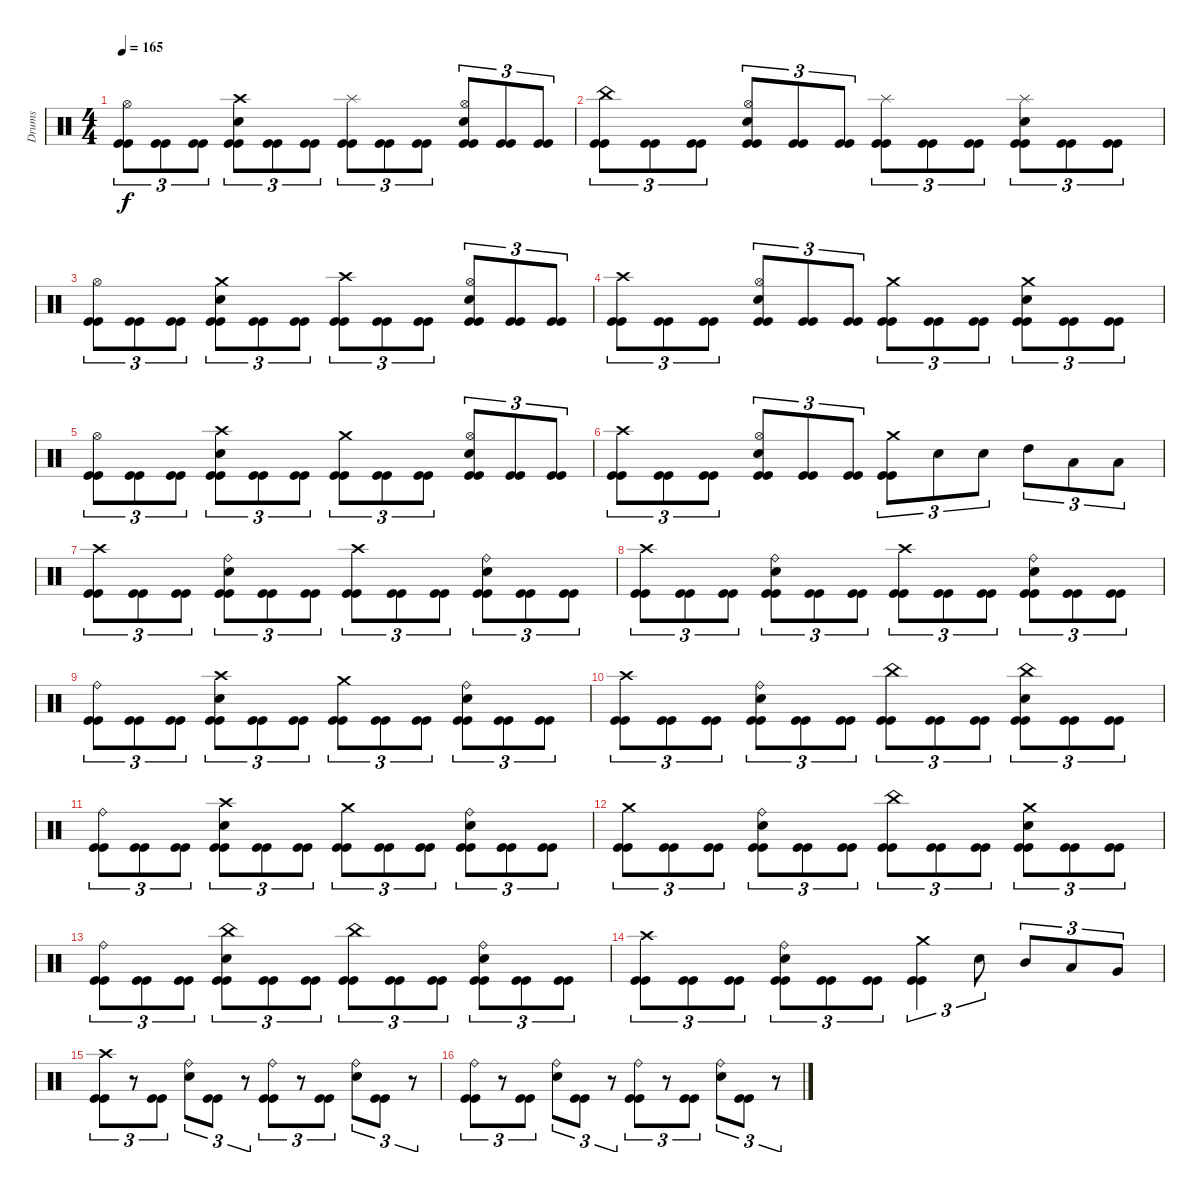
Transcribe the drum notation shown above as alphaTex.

\track ("Drums" "Drums") {instrument percussion}
\staff {score}
\articulation defaults
\ts (4 4)
\tempo 165
\clef neutral
\ks c
("Kick (hit)" "Kick (hit)" "Hi-Hat (open)").8{tu (3 2) dy f} ("Kick (hit)" "Kick (hit)").8{tu (3 2)} ("Kick (hit)" "Kick (hit)").8{tu (3 2)} ("Kick (hit)" "Kick (hit)" "Snare (hit) 2" "Crash high (hit)").8{tu (3 2)} ("Kick (hit)" "Kick (hit)").8{tu (3 2)} ("Kick (hit)" "Kick (hit)").8{tu (3 2)} ("Kick (hit)" "Kick (hit)" "Splash (hit)").8{tu (3 2)} ("Kick (hit)" "Kick (hit)").8{tu (3 2)} ("Kick (hit)" "Kick (hit)").8{tu (3 2)} ("Kick (hit)" "Kick (hit)" "Snare (hit) 2" "Hi-Hat (open)").8{tu (3 2)} ("Kick (hit)" "Kick (hit)").8{tu (3 2)} ("Kick (hit)" "Kick (hit)").8{tu (3 2)} |
("Kick (hit)" "Kick (hit)" "China (hit)").8{tu (3 2)} ("Kick (hit)" "Kick (hit)").8{tu (3 2)} ("Kick (hit)" "Kick (hit)").8{tu (3 2)} ("Kick (hit)" "Kick (hit)" "Snare (hit) 2" "Hi-Hat (open)").8{tu (3 2)} ("Kick (hit)" "Kick (hit)").8{tu (3 2)} ("Kick (hit)" "Kick (hit)").8{tu (3 2)} ("Kick (hit)" "Kick (hit)" "Splash (hit)").8{tu (3 2)} ("Kick (hit)" "Kick (hit)").8{tu (3 2)} ("Kick (hit)" "Kick (hit)").8{tu (3 2)} ("Kick (hit)" "Kick (hit)" "Snare (hit) 2" "Splash (hit)").8{tu (3 2)} ("Kick (hit)" "Kick (hit)").8{tu (3 2)} ("Kick (hit)" "Kick (hit)").8{tu (3 2)} |
("Kick (hit)" "Kick (hit)" "Hi-Hat (open)").8{tu (3 2)} ("Kick (hit)" "Kick (hit)").8{tu (3 2)} ("Kick (hit)" "Kick (hit)").8{tu (3 2)} ("Kick (hit)" "Kick (hit)" "Snare (hit) 2" "Crash medium (hit)").8{tu (3 2)} ("Kick (hit)" "Kick (hit)").8{tu (3 2)} ("Kick (hit)" "Kick (hit)").8{tu (3 2)} ("Kick (hit)" "Kick (hit)" "Crash high (hit)").8{tu (3 2)} ("Kick (hit)" "Kick (hit)").8{tu (3 2)} ("Kick (hit)" "Kick (hit)").8{tu (3 2)} ("Kick (hit)" "Kick (hit)" "Snare (hit) 2" "Hi-Hat (open)").8{tu (3 2)} ("Kick (hit)" "Kick (hit)").8{tu (3 2)} ("Kick (hit)" "Kick (hit)").8{tu (3 2)} |
("Kick (hit)" "Kick (hit)" "Crash high (hit)").8{tu (3 2)} ("Kick (hit)" "Kick (hit)").8{tu (3 2)} ("Kick (hit)" "Kick (hit)").8{tu (3 2)} ("Kick (hit)" "Kick (hit)" "Snare (hit) 2" "Hi-Hat (open)").8{tu (3 2)} ("Kick (hit)" "Kick (hit)").8{tu (3 2)} ("Kick (hit)" "Kick (hit)").8{tu (3 2)} ("Kick (hit)" "Kick (hit)" "Crash medium (hit)").8{tu (3 2)} ("Kick (hit)" "Kick (hit)").8{tu (3 2)} ("Kick (hit)" "Kick (hit)").8{tu (3 2)} ("Kick (hit)" "Kick (hit)" "Snare (hit) 2" "Crash medium (hit)").8{tu (3 2)} ("Kick (hit)" "Kick (hit)").8{tu (3 2)} ("Kick (hit)" "Kick (hit)").8{tu (3 2)} |
("Kick (hit)" "Kick (hit)" "Hi-Hat (open)").8{tu (3 2)} ("Kick (hit)" "Kick (hit)").8{tu (3 2)} ("Kick (hit)" "Kick (hit)").8{tu (3 2)} ("Kick (hit)" "Kick (hit)" "Snare (hit) 2" "Crash high (hit)").8{tu (3 2)} ("Kick (hit)" "Kick (hit)").8{tu (3 2)} ("Kick (hit)" "Kick (hit)").8{tu (3 2)} ("Kick (hit)" "Kick (hit)" "Crash medium (hit)").8{tu (3 2)} ("Kick (hit)" "Kick (hit)").8{tu (3 2)} ("Kick (hit)" "Kick (hit)").8{tu (3 2)} ("Kick (hit)" "Kick (hit)" "Snare (hit) 2" "Hi-Hat (open)").8{tu (3 2)} ("Kick (hit)" "Kick (hit)").8{tu (3 2)} ("Kick (hit)" "Kick (hit)").8{tu (3 2)} |
("Kick (hit)" "Kick (hit)" "Crash high (hit)").8{tu (3 2)} ("Kick (hit)" "Kick (hit)").8{tu (3 2)} ("Kick (hit)" "Kick (hit)").8{tu (3 2)} ("Kick (hit)" "Kick (hit)" "Snare (hit) 2" "Hi-Hat (open)").8{tu (3 2)} ("Kick (hit)" "Kick (hit)").8{tu (3 2)} ("Kick (hit)" "Kick (hit)").8{tu (3 2)} ("Kick (hit)" "Kick (hit)" "Crash medium (hit)").8{tu (3 2)} "Snare (hit) 2".8{tu (3 2)} "Snare (hit) 2".8{tu (3 2)} "High Tom (hit)".8{tu (3 2)} "Low Tom (hit)".8{tu (3 2)} "Low Floor Tom (hit)".8{tu (3 2)} |
("Kick (hit)" "Kick (hit)" "Crash high (hit)").8{tu (3 2)} ("Kick (hit)" "Kick (hit)").8{tu (3 2)} ("Kick (hit)" "Kick (hit)").8{tu (3 2)} ("Kick (hit)" "Kick (hit)" "Snare (hit) 2" "Ride (bell)").8{tu (3 2)} ("Kick (hit)" "Kick (hit)").8{tu (3 2)} ("Kick (hit)" "Kick (hit)").8{tu (3 2)} ("Kick (hit)" "Kick (hit)" "Crash high (hit)").8{tu (3 2)} ("Kick (hit)" "Kick (hit)").8{tu (3 2)} ("Kick (hit)" "Kick (hit)").8{tu (3 2)} ("Kick (hit)" "Kick (hit)" "Snare (hit) 2" "Ride (bell)").8{tu (3 2)} ("Kick (hit)" "Kick (hit)").8{tu (3 2)} ("Kick (hit)" "Kick (hit)").8{tu (3 2)} |
("Kick (hit)" "Kick (hit)" "Crash high (hit)").8{tu (3 2)} ("Kick (hit)" "Kick (hit)").8{tu (3 2)} ("Kick (hit)" "Kick (hit)").8{tu (3 2)} ("Kick (hit)" "Kick (hit)" "Snare (hit) 2" "Ride (bell)").8{tu (3 2)} ("Kick (hit)" "Kick (hit)").8{tu (3 2)} ("Kick (hit)" "Kick (hit)").8{tu (3 2)} ("Kick (hit)" "Kick (hit)" "Crash high (hit)").8{tu (3 2)} ("Kick (hit)" "Kick (hit)").8{tu (3 2)} ("Kick (hit)" "Kick (hit)").8{tu (3 2)} ("Kick (hit)" "Kick (hit)" "Snare (hit) 2" "Ride (bell)").8{tu (3 2)} ("Kick (hit)" "Kick (hit)").8{tu (3 2)} ("Kick (hit)" "Kick (hit)").8{tu (3 2)} |
("Kick (hit)" "Kick (hit)" "Ride (bell)").8{tu (3 2)} ("Kick (hit)" "Kick (hit)").8{tu (3 2)} ("Kick (hit)" "Kick (hit)").8{tu (3 2)} ("Kick (hit)" "Kick (hit)" "Snare (hit) 2" "Crash high (hit)").8{tu (3 2)} ("Kick (hit)" "Kick (hit)").8{tu (3 2)} ("Kick (hit)" "Kick (hit)").8{tu (3 2)} ("Kick (hit)" "Kick (hit)" "Crash medium (hit)").8{tu (3 2)} ("Kick (hit)" "Kick (hit)").8{tu (3 2)} ("Kick (hit)" "Kick (hit)").8{tu (3 2)} ("Kick (hit)" "Kick (hit)" "Snare (hit) 2" "Ride (bell)").8{tu (3 2)} ("Kick (hit)" "Kick (hit)").8{tu (3 2)} ("Kick (hit)" "Kick (hit)").8{tu (3 2)} |
("Kick (hit)" "Kick (hit)" "Crash high (hit)").8{tu (3 2)} ("Kick (hit)" "Kick (hit)").8{tu (3 2)} ("Kick (hit)" "Kick (hit)").8{tu (3 2)} ("Kick (hit)" "Kick (hit)" "Snare (hit) 2" "Ride (bell)").8{tu (3 2)} ("Kick (hit)" "Kick (hit)").8{tu (3 2)} ("Kick (hit)" "Kick (hit)").8{tu (3 2)} ("Kick (hit)" "Kick (hit)" "China (hit)").8{tu (3 2)} ("Kick (hit)" "Kick (hit)").8{tu (3 2)} ("Kick (hit)" "Kick (hit)").8{tu (3 2)} ("Kick (hit)" "Kick (hit)" "Snare (hit) 2" "China (hit)").8{tu (3 2)} ("Kick (hit)" "Kick (hit)").8{tu (3 2)} ("Kick (hit)" "Kick (hit)").8{tu (3 2)} |
("Kick (hit)" "Kick (hit)" "Ride (bell)").8{tu (3 2)} ("Kick (hit)" "Kick (hit)").8{tu (3 2)} ("Kick (hit)" "Kick (hit)").8{tu (3 2)} ("Kick (hit)" "Kick (hit)" "Snare (hit) 2" "Crash high (hit)").8{tu (3 2)} ("Kick (hit)" "Kick (hit)").8{tu (3 2)} ("Kick (hit)" "Kick (hit)").8{tu (3 2)} ("Kick (hit)" "Kick (hit)" "Crash medium (hit)").8{tu (3 2)} ("Kick (hit)" "Kick (hit)").8{tu (3 2)} ("Kick (hit)" "Kick (hit)").8{tu (3 2)} ("Kick (hit)" "Kick (hit)" "Snare (hit) 2" "Ride (bell)").8{tu (3 2)} ("Kick (hit)" "Kick (hit)").8{tu (3 2)} ("Kick (hit)" "Kick (hit)").8{tu (3 2)} |
("Kick (hit)" "Kick (hit)" "Crash medium (hit)").8{tu (3 2)} ("Kick (hit)" "Kick (hit)").8{tu (3 2)} ("Kick (hit)" "Kick (hit)").8{tu (3 2)} ("Kick (hit)" "Kick (hit)" "Snare (hit) 2" "Ride (bell)").8{tu (3 2)} ("Kick (hit)" "Kick (hit)").8{tu (3 2)} ("Kick (hit)" "Kick (hit)").8{tu (3 2)} ("Kick (hit)" "Kick (hit)" "China (hit)").8{tu (3 2)} ("Kick (hit)" "Kick (hit)").8{tu (3 2)} ("Kick (hit)" "Kick (hit)").8{tu (3 2)} ("Kick (hit)" "Kick (hit)" "Snare (hit) 2" "Crash medium (hit)").8{tu (3 2)} ("Kick (hit)" "Kick (hit)").8{tu (3 2)} ("Kick (hit)" "Kick (hit)").8{tu (3 2)} |
("Kick (hit)" "Kick (hit)" "Ride (bell)").8{tu (3 2)} ("Kick (hit)" "Kick (hit)").8{tu (3 2)} ("Kick (hit)" "Kick (hit)").8{tu (3 2)} ("Kick (hit)" "Kick (hit)" "Snare (hit) 2" "China (hit)").8{tu (3 2)} ("Kick (hit)" "Kick (hit)").8{tu (3 2)} ("Kick (hit)" "Kick (hit)").8{tu (3 2)} ("Kick (hit)" "Kick (hit)" "China (hit)").8{tu (3 2)} ("Kick (hit)" "Kick (hit)").8{tu (3 2)} ("Kick (hit)" "Kick (hit)").8{tu (3 2)} ("Kick (hit)" "Kick (hit)" "Snare (hit) 2" "Ride (bell)").8{tu (3 2)} ("Kick (hit)" "Kick (hit)").8{tu (3 2)} ("Kick (hit)" "Kick (hit)").8{tu (3 2)} |
("Kick (hit)" "Kick (hit)" "Crash high (hit)").8{tu (3 2)} ("Kick (hit)" "Kick (hit)").8{tu (3 2)} ("Kick (hit)" "Kick (hit)").8{tu (3 2)} ("Kick (hit)" "Kick (hit)" "Snare (hit) 2" "Ride (bell)").8{tu (3 2)} ("Kick (hit)" "Kick (hit)").8{tu (3 2)} ("Kick (hit)" "Kick (hit)").8{tu (3 2)} ("Kick (hit)" "Kick (hit)" "Crash medium (hit)").4{tu (3 2)} "Electric Snare (hit)".8{tu (3 2)} "Mid Tom (hit)".8{tu (3 2)} "Low Tom (hit)".8{tu (3 2)} "Very Low Tom (hit)".8{tu (3 2)} |
("Kick (hit)" "Kick (hit)" "Crash high (hit)").8{tu (3 2)} r.8{tu (3 2)} ("Kick (hit)" "Kick (hit)").8{tu (3 2)} ("Snare (hit) 2" "Ride (bell)").8{tu (3 2)} ("Kick (hit)" "Kick (hit)").8{tu (3 2)} r.8{tu (3 2)} ("Kick (hit)" "Kick (hit)" "Ride (bell)").8{tu (3 2)} r.8{tu (3 2)} ("Kick (hit)" "Kick (hit)").8{tu (3 2)} ("Snare (hit) 2" "Ride (bell)").8{tu (3 2)} ("Kick (hit)" "Kick (hit)").8{tu (3 2)} r.8{tu (3 2)} |
("Kick (hit)" "Kick (hit)" "Ride (bell)").8{tu (3 2)} r.8{tu (3 2)} ("Kick (hit)" "Kick (hit)").8{tu (3 2)} ("Snare (hit) 2" "Ride (bell)").8{tu (3 2)} ("Kick (hit)" "Kick (hit)").8{tu (3 2)} r.8{tu (3 2)} ("Kick (hit)" "Kick (hit)" "Ride (bell)").8{tu (3 2)} r.8{tu (3 2)} ("Kick (hit)" "Kick (hit)").8{tu (3 2)} ("Snare (hit) 2" "Ride (bell)").8{tu (3 2)} ("Kick (hit)" "Kick (hit)").8{tu (3 2)} r.8{tu (3 2)}
